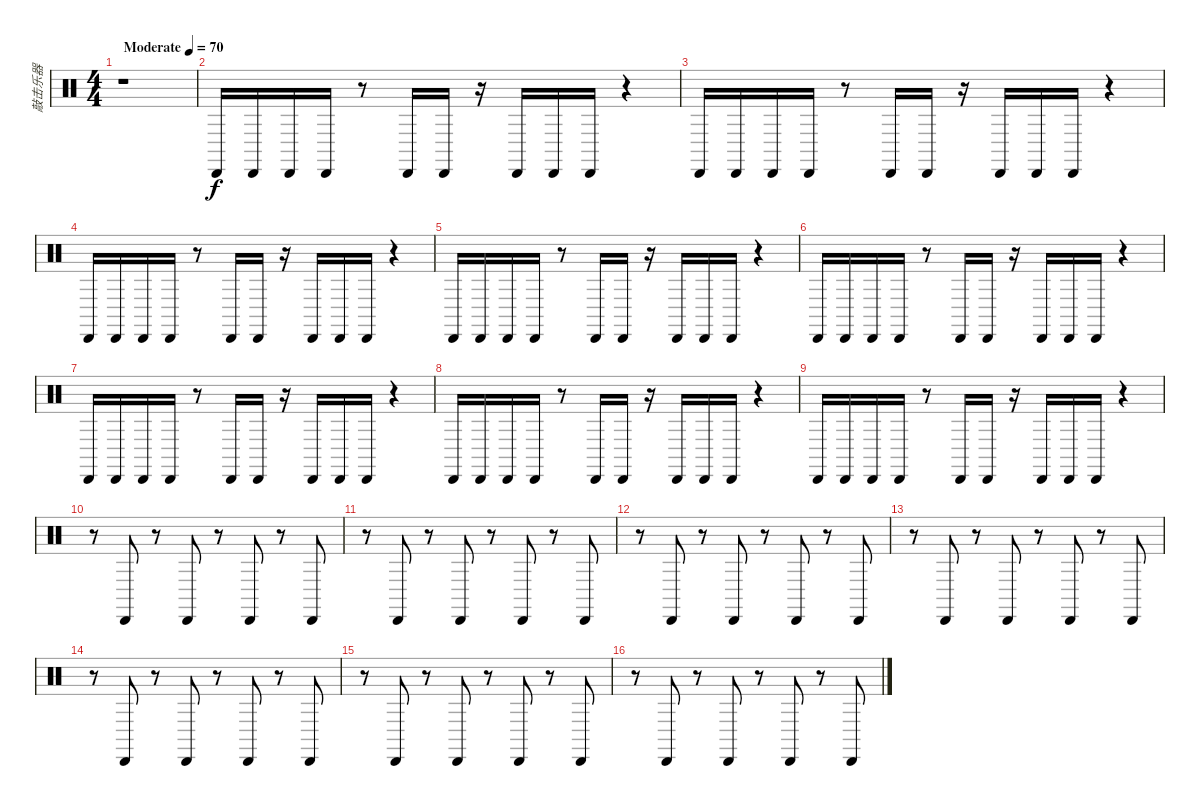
\track ("敲击乐器" "敲击乐器") {instrument percussion}
\staff {score}
\articulation defaults
\ts (4 4)
\tempo (70 "Moderate")
\clef neutral
\ks c
r.1{dy f} |
"Cabasa (hit)".16 "Cabasa (hit)".16 "Cabasa (hit)".16 "Cabasa (hit)".16 r.8 "Cabasa (hit)".16 "Cabasa (hit)".16 r.16 "Cabasa (hit)".16 "Cabasa (hit)".16 "Cabasa (hit)".16 r.4 |
"Cabasa (hit)".16 "Cabasa (hit)".16 "Cabasa (hit)".16 "Cabasa (hit)".16 r.8 "Cabasa (hit)".16 "Cabasa (hit)".16 r.16 "Cabasa (hit)".16 "Cabasa (hit)".16 "Cabasa (hit)".16 r.4 |
"Cabasa (hit)".16 "Cabasa (hit)".16 "Cabasa (hit)".16 "Cabasa (hit)".16 r.8 "Cabasa (hit)".16 "Cabasa (hit)".16 r.16 "Cabasa (hit)".16 "Cabasa (hit)".16 "Cabasa (hit)".16 r.4 |
"Cabasa (hit)".16 "Cabasa (hit)".16 "Cabasa (hit)".16 "Cabasa (hit)".16 r.8 "Cabasa (hit)".16 "Cabasa (hit)".16 r.16 "Cabasa (hit)".16 "Cabasa (hit)".16 "Cabasa (hit)".16 r.4 |
"Cabasa (hit)".16 "Cabasa (hit)".16 "Cabasa (hit)".16 "Cabasa (hit)".16 r.8 "Cabasa (hit)".16 "Cabasa (hit)".16 r.16 "Cabasa (hit)".16 "Cabasa (hit)".16 "Cabasa (hit)".16 r.4 |
"Cabasa (hit)".16 "Cabasa (hit)".16 "Cabasa (hit)".16 "Cabasa (hit)".16 r.8 "Cabasa (hit)".16 "Cabasa (hit)".16 r.16 "Cabasa (hit)".16 "Cabasa (hit)".16 "Cabasa (hit)".16 r.4 |
"Cabasa (hit)".16 "Cabasa (hit)".16 "Cabasa (hit)".16 "Cabasa (hit)".16 r.8 "Cabasa (hit)".16 "Cabasa (hit)".16 r.16 "Cabasa (hit)".16 "Cabasa (hit)".16 "Cabasa (hit)".16 r.4 |
"Cabasa (hit)".16 "Cabasa (hit)".16 "Cabasa (hit)".16 "Cabasa (hit)".16 r.8 "Cabasa (hit)".16 "Cabasa (hit)".16 r.16 "Cabasa (hit)".16 "Cabasa (hit)".16 "Cabasa (hit)".16 r.4 |
r.8 "Cabasa (hit)".8 r.8 "Cabasa (hit)".8 r.8 "Cabasa (hit)".8 r.8 "Cabasa (hit)".8 |
r.8 "Cabasa (hit)".8 r.8 "Cabasa (hit)".8 r.8 "Cabasa (hit)".8 r.8 "Cabasa (hit)".8 |
r.8 "Cabasa (hit)".8 r.8 "Cabasa (hit)".8 r.8 "Cabasa (hit)".8 r.8 "Cabasa (hit)".8 |
r.8 "Cabasa (hit)".8 r.8 "Cabasa (hit)".8 r.8 "Cabasa (hit)".8 r.8 "Cabasa (hit)".8 |
r.8 "Cabasa (hit)".8 r.8 "Cabasa (hit)".8 r.8 "Cabasa (hit)".8 r.8 "Cabasa (hit)".8 |
r.8 "Cabasa (hit)".8 r.8 "Cabasa (hit)".8 r.8 "Cabasa (hit)".8 r.8 "Cabasa (hit)".8 |
r.8 "Cabasa (hit)".8 r.8 "Cabasa (hit)".8 r.8 "Cabasa (hit)".8 r.8 "Cabasa (hit)".8
